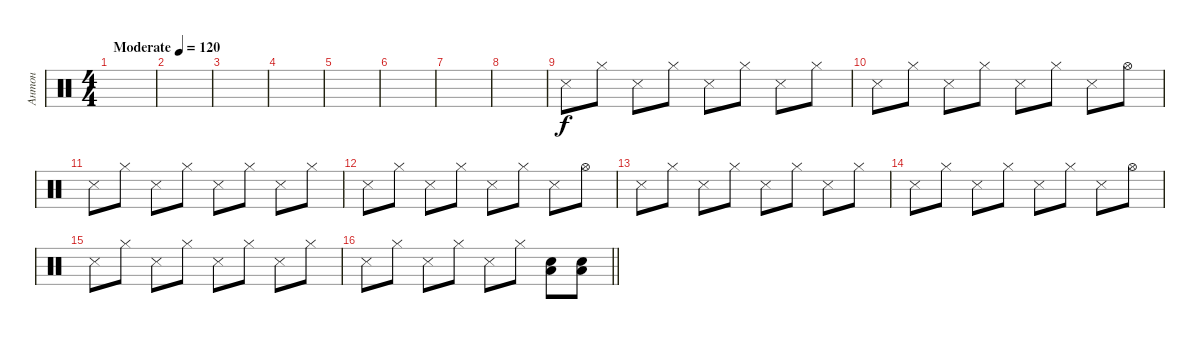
\track ("Антон" "Антон") {instrument percussion}
\staff {score}
\articulation defaults
\ts (4 4)
\tempo (120 "Moderate")
\clef neutral
\ks c
|
|
|
|
|
|
|
|
"Snare (side stick) 3".8 "Hi-Hat (closed)".8 "Snare (side stick) 3".8 "Hi-Hat (closed)".8 "Snare (side stick) 3".8 "Hi-Hat (closed)".8 "Snare (side stick) 3".8 "Hi-Hat (closed)".8 |
"Snare (side stick) 3".8 "Hi-Hat (closed)".8 "Snare (side stick) 3".8 "Hi-Hat (closed)".8 "Snare (side stick) 3".8 "Hi-Hat (closed)".8 "Snare (side stick) 3".8 "Hi-Hat (open)".8 |
"Snare (side stick) 3".8 "Hi-Hat (closed)".8 "Snare (side stick) 3".8 "Hi-Hat (closed)".8 "Snare (side stick) 3".8 "Hi-Hat (closed)".8 "Snare (side stick) 3".8 "Hi-Hat (closed)".8 |
"Snare (side stick) 3".8 "Hi-Hat (closed)".8 "Snare (side stick) 3".8 "Hi-Hat (closed)".8 "Snare (side stick) 3".8 "Hi-Hat (closed)".8 "Snare (side stick) 3".8 "Hi-Hat (open)".8 |
"Snare (side stick) 3".8 "Hi-Hat (closed)".8 "Snare (side stick) 3".8 "Hi-Hat (closed)".8 "Snare (side stick) 3".8 "Hi-Hat (closed)".8 "Snare (side stick) 3".8 "Hi-Hat (closed)".8 |
"Snare (side stick) 3".8 "Hi-Hat (closed)".8 "Snare (side stick) 3".8 "Hi-Hat (closed)".8 "Snare (side stick) 3".8 "Hi-Hat (closed)".8 "Snare (side stick) 3".8 "Hi-Hat (open)".8 |
"Snare (side stick) 3".8 "Hi-Hat (closed)".8 "Snare (side stick) 3".8 "Hi-Hat (closed)".8 "Snare (side stick) 3".8 "Hi-Hat (closed)".8 "Snare (side stick) 3".8 "Hi-Hat (closed)".8 |
\barLineRight lightlight "Snare (side stick) 3".8 "Hi-Hat (closed)".8 "Snare (side stick) 3".8 "Hi-Hat (closed)".8 "Snare (side stick) 3".8 "Hi-Hat (closed)".8
("Electric Snare (hit)" "Low Tom (hit)").8 ("Electric Snare (hit)" "Low Tom (hit)").8
